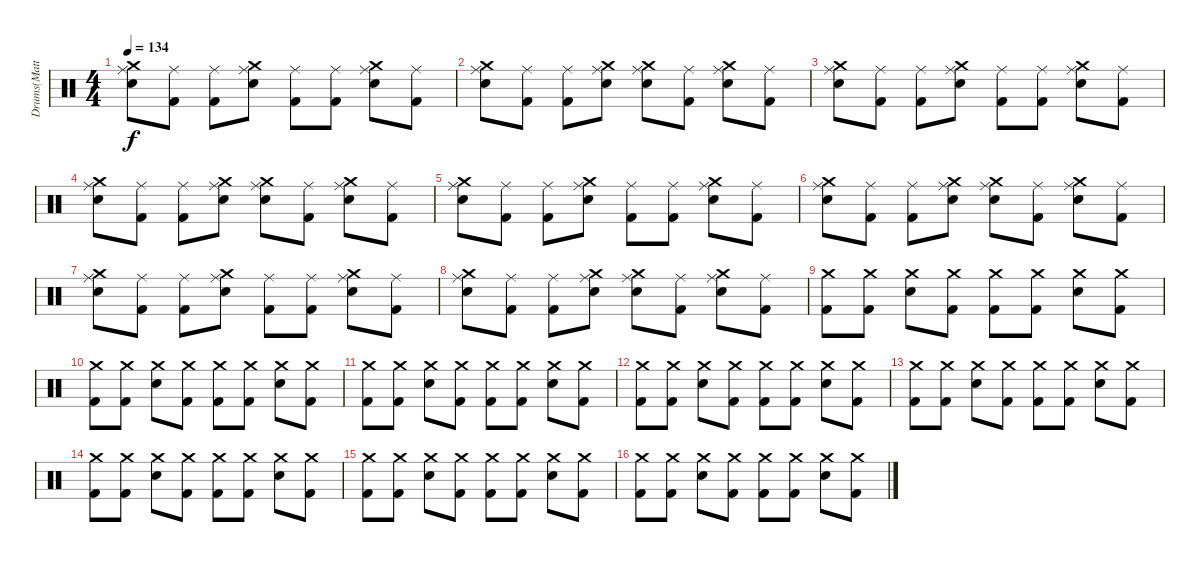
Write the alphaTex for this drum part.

\track ("Drums(Matthias)" "Drums(Matt") {instrument percussion}
\staff {score}
\articulation defaults
\ts (4 4)
\tempo 134
\clef neutral
\ks c
("Ride (middle)" "Crash medium (hit)" "Snare (hit) 2").8{dy f} ("Ride (middle)" "Kick (hit) 2").8 ("Ride (middle)" "Kick (hit) 2").8 ("Ride (middle)" "Crash medium (hit)" "Snare (hit) 2").8 ("Ride (middle)" "Kick (hit) 2").8 ("Ride (middle)" "Kick (hit) 2").8 ("Ride (middle)" "Crash medium (hit)" "Snare (hit) 2").8 ("Ride (middle)" "Kick (hit) 2").8 |
("Ride (middle)" "Crash medium (hit)" "Snare (hit) 2").8 ("Ride (middle)" "Kick (hit) 2").8 ("Ride (middle)" "Kick (hit) 2").8 ("Ride (middle)" "Crash medium (hit)" "Snare (hit) 2").8 ("Ride (middle)" "Crash medium (hit)" "Snare (hit) 2").8 ("Ride (middle)" "Kick (hit) 2").8 ("Ride (middle)" "Crash medium (hit)" "Snare (hit) 2").8 ("Ride (middle)" "Kick (hit) 2").8 |
("Ride (middle)" "Crash medium (hit)" "Snare (hit) 2").8 ("Ride (middle)" "Kick (hit) 2").8 ("Ride (middle)" "Kick (hit) 2").8 ("Ride (middle)" "Crash medium (hit)" "Snare (hit) 2").8 ("Ride (middle)" "Kick (hit) 2").8 ("Ride (middle)" "Kick (hit) 2").8 ("Ride (middle)" "Crash medium (hit)" "Snare (hit) 2").8 ("Ride (middle)" "Kick (hit) 2").8 |
("Ride (middle)" "Crash medium (hit)" "Snare (hit) 2").8 ("Ride (middle)" "Kick (hit) 2").8 ("Ride (middle)" "Kick (hit) 2").8 ("Ride (middle)" "Crash medium (hit)" "Snare (hit) 2").8 ("Ride (middle)" "Crash medium (hit)" "Snare (hit) 2").8 ("Ride (middle)" "Kick (hit) 2").8 ("Ride (middle)" "Crash medium (hit)" "Snare (hit) 2").8 ("Ride (middle)" "Kick (hit) 2").8 |
("Ride (middle)" "Crash medium (hit)" "Snare (hit) 2").8 ("Ride (middle)" "Kick (hit) 2").8 ("Ride (middle)" "Kick (hit) 2").8 ("Ride (middle)" "Crash medium (hit)" "Snare (hit) 2").8 ("Ride (middle)" "Kick (hit) 2").8 ("Ride (middle)" "Kick (hit) 2").8 ("Ride (middle)" "Crash medium (hit)" "Snare (hit) 2").8 ("Ride (middle)" "Kick (hit) 2").8 |
("Ride (middle)" "Crash medium (hit)" "Snare (hit) 2").8 ("Ride (middle)" "Kick (hit) 2").8 ("Ride (middle)" "Kick (hit) 2").8 ("Ride (middle)" "Crash medium (hit)" "Snare (hit) 2").8 ("Ride (middle)" "Crash medium (hit)" "Snare (hit) 2").8 ("Ride (middle)" "Kick (hit) 2").8 ("Ride (middle)" "Crash medium (hit)" "Snare (hit) 2").8 ("Ride (middle)" "Kick (hit) 2").8 |
("Ride (middle)" "Crash medium (hit)" "Snare (hit) 2").8 ("Ride (middle)" "Kick (hit) 2").8 ("Ride (middle)" "Kick (hit) 2").8 ("Ride (middle)" "Crash medium (hit)" "Snare (hit) 2").8 ("Ride (middle)" "Kick (hit) 2").8 ("Ride (middle)" "Kick (hit) 2").8 ("Ride (middle)" "Crash medium (hit)" "Snare (hit) 2").8 ("Ride (middle)" "Kick (hit) 2").8 |
("Ride (middle)" "Crash medium (hit)" "Snare (hit) 2").8 ("Ride (middle)" "Kick (hit) 2").8 ("Ride (middle)" "Kick (hit) 2").8 ("Ride (middle)" "Crash medium (hit)" "Snare (hit) 2").8 ("Ride (middle)" "Crash medium (hit)" "Snare (hit) 2").8 ("Ride (middle)" "Kick (hit) 2").8 ("Ride (middle)" "Crash medium (hit)" "Snare (hit) 2").8 ("Ride (middle)" "Kick (hit) 2").8 |
("Crash medium (hit)" "Kick (hit) 2").8 ("Crash medium (hit)" "Kick (hit) 2").8 ("Crash medium (hit)" "Snare (hit) 2").8 ("Crash medium (hit)" "Kick (hit) 2").8 ("Crash medium (hit)" "Kick (hit) 2").8 ("Crash medium (hit)" "Kick (hit) 2").8 ("Crash medium (hit)" "Snare (hit) 2").8 ("Crash medium (hit)" "Kick (hit) 2").8 |
("Crash medium (hit)" "Kick (hit) 2").8 ("Crash medium (hit)" "Kick (hit) 2").8 ("Crash medium (hit)" "Snare (hit) 2").8 ("Crash medium (hit)" "Kick (hit) 2").8 ("Crash medium (hit)" "Kick (hit) 2").8 ("Crash medium (hit)" "Kick (hit) 2").8 ("Crash medium (hit)" "Snare (hit) 2").8 ("Crash medium (hit)" "Kick (hit) 2").8 |
("Crash medium (hit)" "Kick (hit) 2").8 ("Crash medium (hit)" "Kick (hit) 2").8 ("Crash medium (hit)" "Snare (hit) 2").8 ("Crash medium (hit)" "Kick (hit) 2").8 ("Crash medium (hit)" "Kick (hit) 2").8 ("Crash medium (hit)" "Kick (hit) 2").8 ("Crash medium (hit)" "Snare (hit) 2").8 ("Crash medium (hit)" "Kick (hit) 2").8 |
("Crash medium (hit)" "Kick (hit) 2").8 ("Crash medium (hit)" "Kick (hit) 2").8 ("Crash medium (hit)" "Snare (hit) 2").8 ("Crash medium (hit)" "Kick (hit) 2").8 ("Crash medium (hit)" "Kick (hit) 2").8 ("Crash medium (hit)" "Kick (hit) 2").8 ("Crash medium (hit)" "Snare (hit) 2").8 ("Crash medium (hit)" "Kick (hit) 2").8 |
("Crash medium (hit)" "Kick (hit) 2").8 ("Crash medium (hit)" "Kick (hit) 2").8 ("Crash medium (hit)" "Snare (hit) 2").8 ("Crash medium (hit)" "Kick (hit) 2").8 ("Crash medium (hit)" "Kick (hit) 2").8 ("Crash medium (hit)" "Kick (hit) 2").8 ("Crash medium (hit)" "Snare (hit) 2").8 ("Crash medium (hit)" "Kick (hit) 2").8 |
("Crash medium (hit)" "Kick (hit) 2").8 ("Crash medium (hit)" "Kick (hit) 2").8 ("Crash medium (hit)" "Snare (hit) 2").8 ("Crash medium (hit)" "Kick (hit) 2").8 ("Crash medium (hit)" "Kick (hit) 2").8 ("Crash medium (hit)" "Kick (hit) 2").8 ("Crash medium (hit)" "Snare (hit) 2").8 ("Crash medium (hit)" "Kick (hit) 2").8 |
("Crash medium (hit)" "Kick (hit) 2").8 ("Crash medium (hit)" "Kick (hit) 2").8 ("Crash medium (hit)" "Snare (hit) 2").8 ("Crash medium (hit)" "Kick (hit) 2").8 ("Crash medium (hit)" "Kick (hit) 2").8 ("Crash medium (hit)" "Kick (hit) 2").8 ("Crash medium (hit)" "Snare (hit) 2").8 ("Crash medium (hit)" "Kick (hit) 2").8 |
("Crash medium (hit)" "Kick (hit) 2").8 ("Crash medium (hit)" "Kick (hit) 2").8 ("Crash medium (hit)" "Snare (hit) 2").8 ("Crash medium (hit)" "Kick (hit) 2").8 ("Crash medium (hit)" "Kick (hit) 2").8 ("Crash medium (hit)" "Kick (hit) 2").8 ("Crash medium (hit)" "Snare (hit) 2").8 ("Crash medium (hit)" "Kick (hit) 2").8
